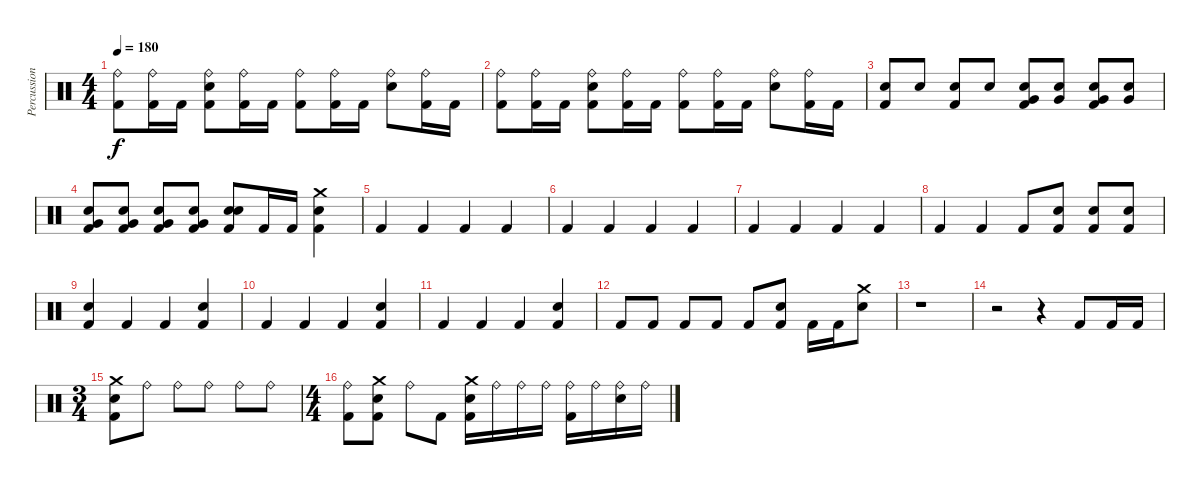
\track ("Percussion" "Percussion") {instrument percussion}
\staff {score}
\articulation defaults
\ts (4 4)
\tempo 180
\clef neutral
\ks c
("Ride (bell)" "Kick (hit) 2").8{dy f} ("Ride (bell)" "Kick (hit) 2").16 "Kick (hit) 2".16 ("Ride (bell)" "Snare (hit) 2" "Kick (hit) 2").8 ("Ride (bell)" "Kick (hit) 2").16 "Kick (hit) 2".16 ("Ride (bell)" "Kick (hit) 2").8 ("Ride (bell)" "Kick (hit) 2").16 "Kick (hit) 2".16 ("Ride (bell)" "Snare (hit) 2").8 ("Ride (bell)" "Kick (hit) 2").16 "Kick (hit) 2".16 |
("Ride (bell)" "Kick (hit) 2").8 ("Ride (bell)" "Kick (hit) 2").16 "Kick (hit) 2".16 ("Ride (bell)" "Snare (hit) 2" "Kick (hit) 2").8 ("Ride (bell)" "Kick (hit) 2").16 "Kick (hit) 2".16 ("Ride (bell)" "Kick (hit) 2").8 ("Ride (bell)" "Kick (hit) 2").16 "Kick (hit) 2".16 ("Ride (bell)" "Snare (hit) 2").8 ("Ride (bell)" "Kick (hit) 2").16 "Kick (hit) 2".16 |
("Snare (hit) 2" "Kick (hit) 2").8 "Snare (hit) 2".8 ("Snare (hit) 2" "Kick (hit) 2").8 "Snare (hit) 2".8 ("Very Low Tom (hit)" "Snare (hit) 2" "Kick (hit) 2").8 ("Very Low Tom (hit)" "Snare (hit) 2").8 ("Very Low Tom (hit)" "Snare (hit) 2" "Kick (hit) 2").8 ("Very Low Tom (hit)" "Snare (hit) 2").8 |
("Very Low Tom (hit)" "Snare (hit) 2" "Kick (hit) 2").8 ("Very Low Tom (hit)" "Snare (hit) 2" "Kick (hit) 2").8 ("Very Low Tom (hit)" "Snare (hit) 2" "Kick (hit) 2").8 ("Very Low Tom (hit)" "Snare (hit) 2" "Kick (hit) 2").8 ("Snare (hit) 2" "Snare (hit) 2" "Kick (hit) 2").8 "Kick (hit) 2".16 "Kick (hit) 2".16 ("Crash medium (hit)" "Snare (hit) 2" "Kick (hit) 2").4 |
"Kick (hit) 2".4 "Kick (hit) 2".4 "Kick (hit) 2".4 "Kick (hit) 2".4 |
"Kick (hit) 2".4 "Kick (hit) 2".4 "Kick (hit) 2".4 "Kick (hit) 2".4 |
"Kick (hit) 2".4 "Kick (hit) 2".4 "Kick (hit) 2".4 "Kick (hit) 2".4 |
"Kick (hit) 2".4 "Kick (hit) 2".4 "Kick (hit) 2".8 ("Snare (hit) 2" "Kick (hit) 2").8 ("Snare (hit) 2" "Kick (hit) 2").8 ("Snare (hit) 2" "Kick (hit) 2").8 |
("Snare (hit) 2" "Kick (hit) 2").4 "Kick (hit) 2".4 "Kick (hit) 2".4 ("Snare (hit) 2" "Kick (hit) 2").4 |
"Kick (hit) 2".4 "Kick (hit) 2".4 "Kick (hit) 2".4 ("Snare (hit) 2" "Kick (hit) 2").4 |
"Kick (hit) 2".4 "Kick (hit) 2".4 "Kick (hit) 2".4 ("Snare (hit) 2" "Kick (hit) 2").4 |
"Kick (hit) 2".8 "Kick (hit) 2".8 "Kick (hit) 2".8 "Kick (hit) 2".8 "Kick (hit) 2".8 ("Snare (hit) 2" "Kick (hit) 2").8 "Kick (hit) 2".16 "Kick (hit) 2".16 ("Crash medium (hit)" "Snare (hit) 2").8 |
r.1 |
r.2 r.4 "Kick (hit) 2".8 "Kick (hit) 2".16 "Kick (hit) 2".16 |
\ts (3 4)
("Crash medium (hit)" "Snare (hit) 2" "Kick (hit) 2").8 "Ride (bell)".8 "Ride (bell)".8 "Ride (bell)".8 "Ride (bell)".8 "Ride (bell)".8 |
\ts (4 4)
("Ride (bell)" "Kick (hit) 2").8 ("Crash medium (hit)" "Snare (hit) 2" "Kick (hit) 2").8 "Ride (bell)".8 "Kick (hit) 2".8 ("Crash medium (hit)" "Snare (hit) 2" "Kick (hit) 2").16 "Ride (bell)".16 "Ride (bell)".16 "Ride (bell)".16 ("Ride (bell)" "Kick (hit) 2").16 "Ride (bell)".16 ("Ride (bell)" "Snare (hit) 2").16 "Ride (bell)".16
